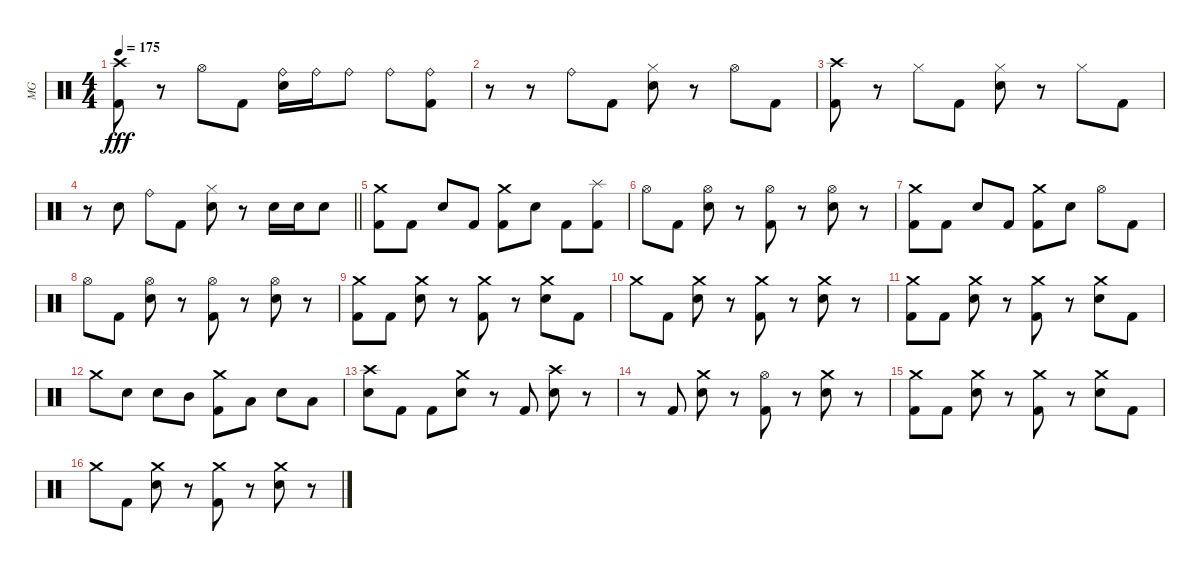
\track ("MG" "MG") {instrument percussion}
\staff {score}
\articulation defaults
\ts (4 4)
\tempo 175
\clef neutral
\ks c
("Crash high (hit)" "Kick (hit) 2").8{dy fff} r.8 "Hi-Hat (open)".8 "Kick (hit) 2".8 ("Ride (bell)" "Electric Snare (hit)").16 "Ride (bell)".16 "Ride (bell)".8 "Ride (bell)".8 ("Ride (bell)" "Kick (hit) 2").8 |
r.8 r.8 "Ride (bell)".8 "Kick (hit) 2".8 ("Hi-Hat (closed)" "Electric Snare (hit)").8 r.8 "Hi-Hat (open)".8 "Kick (hit) 2".8 |
("Crash high (hit)" "Kick (hit) 2").8 r.8 "Hi-Hat (closed)".8 "Kick (hit) 2".8 ("Hi-Hat (closed)" "Electric Snare (hit)").8 r.8 "Hi-Hat (closed)".8 "Kick (hit) 2".8 |
\barLineRight lightlight
r.8 "Electric Snare (hit)".8 "Ride (bell)".8 "Kick (hit) 2".8 ("Hi-Hat (closed)" "Electric Snare (hit)").8 r.8 "Electric Snare (hit)".16 "Electric Snare (hit)".16 "Electric Snare (hit)".8 |
\section ("" "")
("Crash medium (hit)" "Kick (hit) 2").8 "Kick (hit) 2".8 "Electric Snare (hit)".8 "Kick (hit) 2".8 ("Crash medium (hit)" "Kick (hit) 2").8 "Electric Snare (hit)".8 "Kick (hit) 2".8 ("Splash (hit)" "Kick (hit) 2").8 |
"Hi-Hat (open)".8 "Kick (hit) 2".8 ("Hi-Hat (open)" "Electric Snare (hit)").8 r.8 ("Hi-Hat (open)" "Kick (hit) 2").8 r.8 ("Hi-Hat (open)" "Electric Snare (hit)").8 r.8 |
("Crash medium (hit)" "Kick (hit) 2").8 "Kick (hit) 2".8 "Electric Snare (hit)".8 "Kick (hit) 2".8 ("Crash medium (hit)" "Kick (hit) 2").8 "Electric Snare (hit)".8 "Hi-Hat (open)".8 "Kick (hit) 2".8 |
"Hi-Hat (open)".8 "Kick (hit) 2".8 ("Hi-Hat (open)" "Electric Snare (hit)").8 r.8 ("Hi-Hat (open)" "Kick (hit) 2").8 r.8 ("Hi-Hat (open)" "Electric Snare (hit)").8 r.8 |
("Crash medium (hit)" "Kick (hit) 2").8 "Kick (hit) 2".8 ("Crash medium (hit)" "Electric Snare (hit)").8 r.8 ("Crash medium (hit)" "Kick (hit) 2").8 r.8 ("Crash medium (hit)" "Electric Snare (hit)").8 "Kick (hit) 2".8 |
"Crash medium (hit)".8 "Kick (hit) 2".8 ("Crash medium (hit)" "Electric Snare (hit)").8 r.8 ("Crash medium (hit)" "Kick (hit) 2").8 r.8 ("Crash medium (hit)" "Electric Snare (hit)").8 r.8 |
("Crash medium (hit)" "Kick (hit) 2").8 "Kick (hit) 2".8 ("Crash medium (hit)" "Electric Snare (hit)").8 r.8 ("Crash medium (hit)" "Kick (hit) 2").8 r.8 ("Crash medium (hit)" "Electric Snare (hit)").8 "Kick (hit) 2".8 |
"Crash medium (hit)".8 "Electric Snare (hit)".8 "Electric Snare (hit)".8 "Mid Tom (hit)".8 ("Crash medium (hit)" "Kick (hit) 2").8 "Low Tom (hit)".8 "Electric Snare (hit)".8 "Low Tom (hit)".8 |
("Crash high (hit)" "Electric Snare (hit)").8 "Kick (hit) 2".8 "Kick (hit) 2".8 ("Crash medium (hit)" "Electric Snare (hit)").8 r.8 "Kick (hit) 2".8 ("Crash high (hit)" "Electric Snare (hit)").8 r.8 |
r.8 "Kick (hit) 2".8 ("Crash medium (hit)" "Electric Snare (hit)").8 r.8 ("Hi-Hat (open)" "Kick (hit) 2").8 r.8 ("Crash medium (hit)" "Electric Snare (hit)").8 r.8 |
("Crash medium (hit)" "Kick (hit) 2").8 "Kick (hit) 2".8 ("Crash medium (hit)" "Electric Snare (hit)").8 r.8 ("Crash medium (hit)" "Kick (hit) 2").8 r.8 ("Crash medium (hit)" "Electric Snare (hit)").8 "Kick (hit) 2".8 |
"Crash medium (hit)".8 "Kick (hit) 2".8 ("Crash medium (hit)" "Electric Snare (hit)").8 r.8 ("Crash medium (hit)" "Kick (hit) 2").8 r.8 ("Crash medium (hit)" "Electric Snare (hit)").8 r.8
